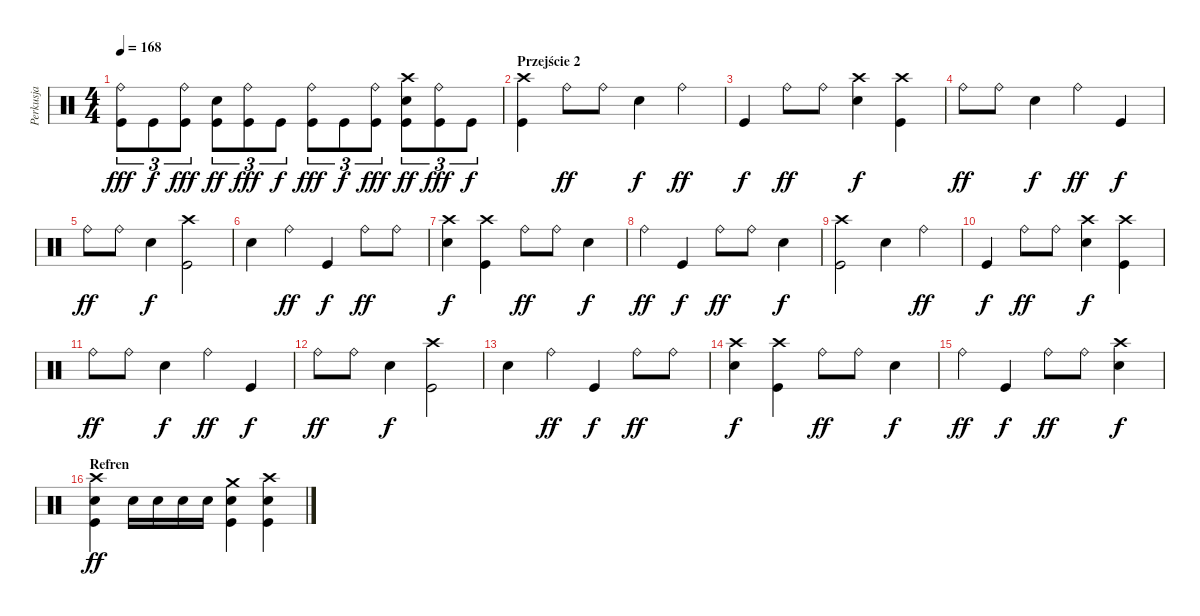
\track ("Perkusja" "Perkusja") {instrument percussion}
\staff {score}
\articulation defaults
\ts (4 4)
\tempo 168
\clef neutral
\ks c
("Ride (bell)" "Kick (hit)").8{tu (3 2) dy fff} "Kick (hit)".8{tu (3 2) dy f} ("Ride (bell)" "Kick (hit)").8{tu (3 2) dy fff} ("Snare (hit) 2" "Kick (hit)").8{tu (3 2) dy ff} ("Ride (bell)" "Kick (hit)").8{tu (3 2) dy fff} "Kick (hit)".8{tu (3 2) dy f} ("Ride (bell)" "Kick (hit)").8{tu (3 2) dy fff} "Kick (hit)".8{tu (3 2) dy f} ("Ride (bell)" "Kick (hit)").8{tu (3 2) dy fff} ("Crash high (hit)" "Snare (hit) 2" "Kick (hit)").8{tu (3 2) dy ff} ("Ride (bell)" "Kick (hit)").8{tu (3 2) dy fff} "Kick (hit)".8{tu (3 2) dy f} |
\section ("" "Przejście 2")
("Crash high (hit)" "Kick (hit)").4 "Ride (bell)".8{dy ff} "Ride (bell)".8 "Snare (hit) 2".4{dy f} "Ride (bell)".4{dy ff} |
"Kick (hit)".4{dy f} "Ride (bell)".8{dy ff} "Ride (bell)".8 ("Crash high (hit)" "Snare (hit) 2").4{dy f} ("Crash high (hit)" "Kick (hit)").4 |
"Ride (bell)".8{dy ff} "Ride (bell)".8 "Snare (hit) 2".4{dy f} "Ride (bell)".4{dy ff} "Kick (hit)".4{dy f} |
"Ride (bell)".8{dy ff} "Ride (bell)".8 "Snare (hit) 2".4{dy f} ("Crash high (hit)" "Kick (hit)").2 |
"Snare (hit) 2".4 "Ride (bell)".4{dy ff} "Kick (hit)".4{dy f} "Ride (bell)".8{dy ff} "Ride (bell)".8 |
("Crash high (hit)" "Snare (hit) 2").4{dy f} ("Crash high (hit)" "Kick (hit)").4 "Ride (bell)".8{dy ff} "Ride (bell)".8 "Snare (hit) 2".4{dy f} |
"Ride (bell)".4{dy ff} "Kick (hit)".4{dy f} "Ride (bell)".8{dy ff} "Ride (bell)".8 "Snare (hit) 2".4{dy f} |
("Crash high (hit)" "Kick (hit)").2 "Snare (hit) 2".4 "Ride (bell)".4{dy ff} |
"Kick (hit)".4{dy f} "Ride (bell)".8{dy ff} "Ride (bell)".8 ("Crash high (hit)" "Snare (hit) 2").4{dy f} ("Crash high (hit)" "Kick (hit)").4 |
"Ride (bell)".8{dy ff} "Ride (bell)".8 "Snare (hit) 2".4{dy f} "Ride (bell)".4{dy ff} "Kick (hit)".4{dy f} |
"Ride (bell)".8{dy ff} "Ride (bell)".8 "Snare (hit) 2".4{dy f} ("Crash high (hit)" "Kick (hit)").2 |
"Snare (hit) 2".4 "Ride (bell)".4{dy ff} "Kick (hit)".4{dy f} "Ride (bell)".8{dy ff} "Ride (bell)".8 |
("Crash high (hit)" "Snare (hit) 2").4{dy f} ("Crash high (hit)" "Kick (hit)").4 "Ride (bell)".8{dy ff} "Ride (bell)".8 "Snare (hit) 2".4{dy f} |
"Ride (bell)".4{dy ff} "Kick (hit)".4{dy f} "Ride (bell)".8{dy ff} "Ride (bell)".8 ("Crash high (hit)" "Snare (hit) 2").4{dy f} |
\section ("" "Refren")
("Crash high (hit)" "Snare (hit) 2" "Kick (hit)").4{dy ff} "Snare (hit) 2".16 "Snare (hit) 2".16 "Snare (hit) 2".16 "Snare (hit) 2".16 ("Crash medium (hit)" "Snare (hit) 2" "Kick (hit)").4 ("Crash high (hit)" "Snare (hit) 2" "Kick (hit)").4
